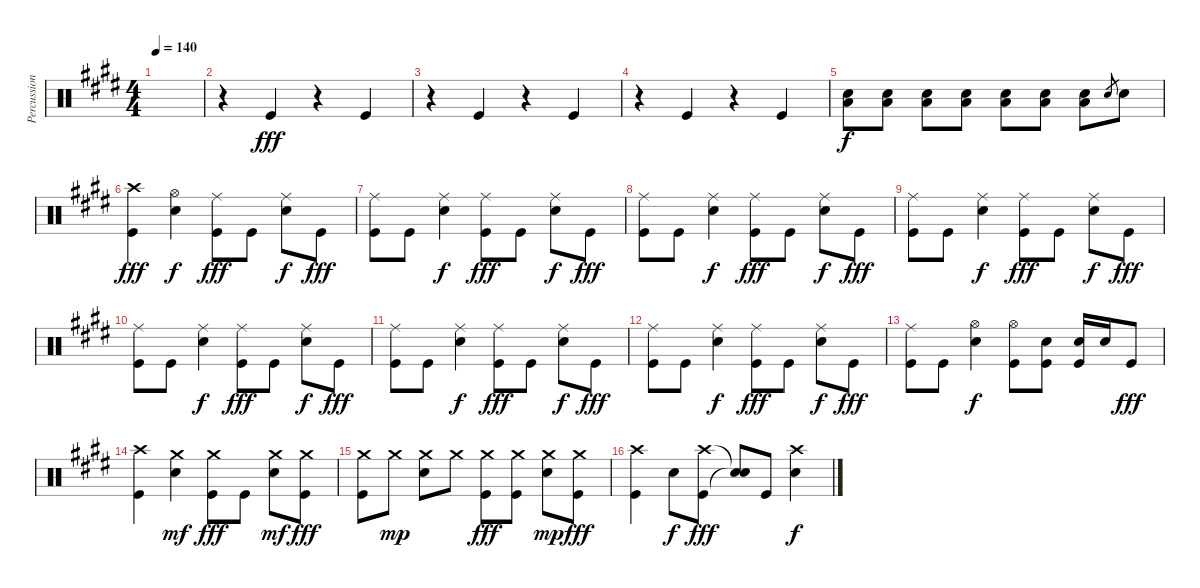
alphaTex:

\track ("Percussion" "Percussion") {instrument percussion}
\staff {score}
\articulation defaults
\ts (4 4)
\tempo 140
\clef neutral
\ks e
|
r.4 "Kick (hit)".4{dy fff} r.4 "Kick (hit)".4 |
r.4 "Kick (hit)".4 r.4 "Kick (hit)".4 |
r.4 "Kick (hit)".4 r.4 "Kick (hit)".4 |
("Low Tom (hit)" "Snare (hit) 2").8{dy f} ("Low Tom (hit)" "Snare (hit) 2").8 ("Low Tom (hit)" "Snare (hit) 2").8 ("Low Tom (hit)" "Snare (hit) 2").8 ("Low Tom (hit)" "Snare (hit) 2").8 ("Low Tom (hit)" "Snare (hit) 2").8 ("Low Tom (hit)" "Snare (hit) 2").8 "Snare (hit) 2".8{gr} "Snare (hit) 2".8 |
("Crash high (hit)" "Kick (hit)").4{dy fff} ("Hi-Hat (open)" "Snare (hit) 2").4{dy f} ("Ride (middle)" "Kick (hit)").8{dy fff} "Kick (hit)".8 ("Ride (middle)" "Snare (hit) 2").8{dy f} "Kick (hit)".8{dy fff} |
("Ride (middle)" "Kick (hit)").8 "Kick (hit)".8 ("Ride (middle)" "Snare (hit) 2").4{dy f} ("Ride (middle)" "Kick (hit)").8{dy fff} "Kick (hit)".8 ("Ride (middle)" "Snare (hit) 2").8{dy f} "Kick (hit)".8{dy fff} |
("Ride (middle)" "Kick (hit)").8 "Kick (hit)".8 ("Ride (middle)" "Snare (hit) 2").4{dy f} ("Ride (middle)" "Kick (hit)").8{dy fff} "Kick (hit)".8 ("Ride (middle)" "Snare (hit) 2").8{dy f} "Kick (hit)".8{dy fff} |
("Ride (middle)" "Kick (hit)").8 "Kick (hit)".8 ("Ride (middle)" "Snare (hit) 2").4{dy f} ("Ride (middle)" "Kick (hit)").8{dy fff} "Kick (hit)".8 ("Ride (middle)" "Snare (hit) 2").8{dy f} "Kick (hit)".8{dy fff} |
("Ride (middle)" "Kick (hit)").8 "Kick (hit)".8 ("Ride (middle)" "Snare (hit) 2").4{dy f} ("Ride (middle)" "Kick (hit)").8{dy fff} "Kick (hit)".8 ("Ride (middle)" "Snare (hit) 2").8{dy f} "Kick (hit)".8{dy fff} |
("Ride (middle)" "Kick (hit)").8 "Kick (hit)".8 ("Ride (middle)" "Snare (hit) 2").4{dy f} ("Ride (middle)" "Kick (hit)").8{dy fff} "Kick (hit)".8 ("Ride (middle)" "Snare (hit) 2").8{dy f} "Kick (hit)".8{dy fff} |
("Ride (middle)" "Kick (hit)").8 "Kick (hit)".8 ("Ride (middle)" "Snare (hit) 2").4{dy f} ("Ride (middle)" "Kick (hit)").8{dy fff} "Kick (hit)".8 ("Ride (middle)" "Snare (hit) 2").8{dy f} "Kick (hit)".8{dy fff} |
("Ride (middle)" "Kick (hit)").8 "Kick (hit)".8 ("Hi-Hat (open)" "Snare (hit) 2").4{dy f} ("Hi-Hat (open)" "Kick (hit)").8 ("Snare (hit) 2" "Kick (hit)").8 ("Snare (hit) 2" "Kick (hit)").16 "Snare (hit) 2".16 "Kick (hit)".8{dy fff} |
("Crash high (hit)" "Kick (hit)").4 ("Crash medium (hit)" "Snare (hit) 2").4{dy mf} ("Crash medium (hit)" "Kick (hit)").8{dy fff} "Kick (hit)".8 ("Crash medium (hit)" "Snare (hit) 2").8{dy mf} ("Crash medium (hit)" "Kick (hit)").8{dy fff} |
("Crash medium (hit)" "Kick (hit)").8 "Crash medium (hit)".8{dy mp} ("Crash medium (hit)" "Snare (hit) 2").8 "Crash medium (hit)".8 ("Crash medium (hit)" "Kick (hit)").8{dy fff} ("Crash medium (hit)" "Kick (hit)").8 ("Crash medium (hit)" "Snare (hit) 2").8{dy mp} ("Crash medium (hit)" "Kick (hit)").8{dy fff} |
("Crash high (hit)" "Kick (hit)").4 "Snare (hit) 2".8{dy f} ("Crash high (hit)" "Kick (hit)").8{dy fff} ("Snare (hit)"{t} "Snare (hit)"{t}).8 "Kick (hit)".8 ("Crash high (hit)" "Snare (hit) 2").4{dy f}
